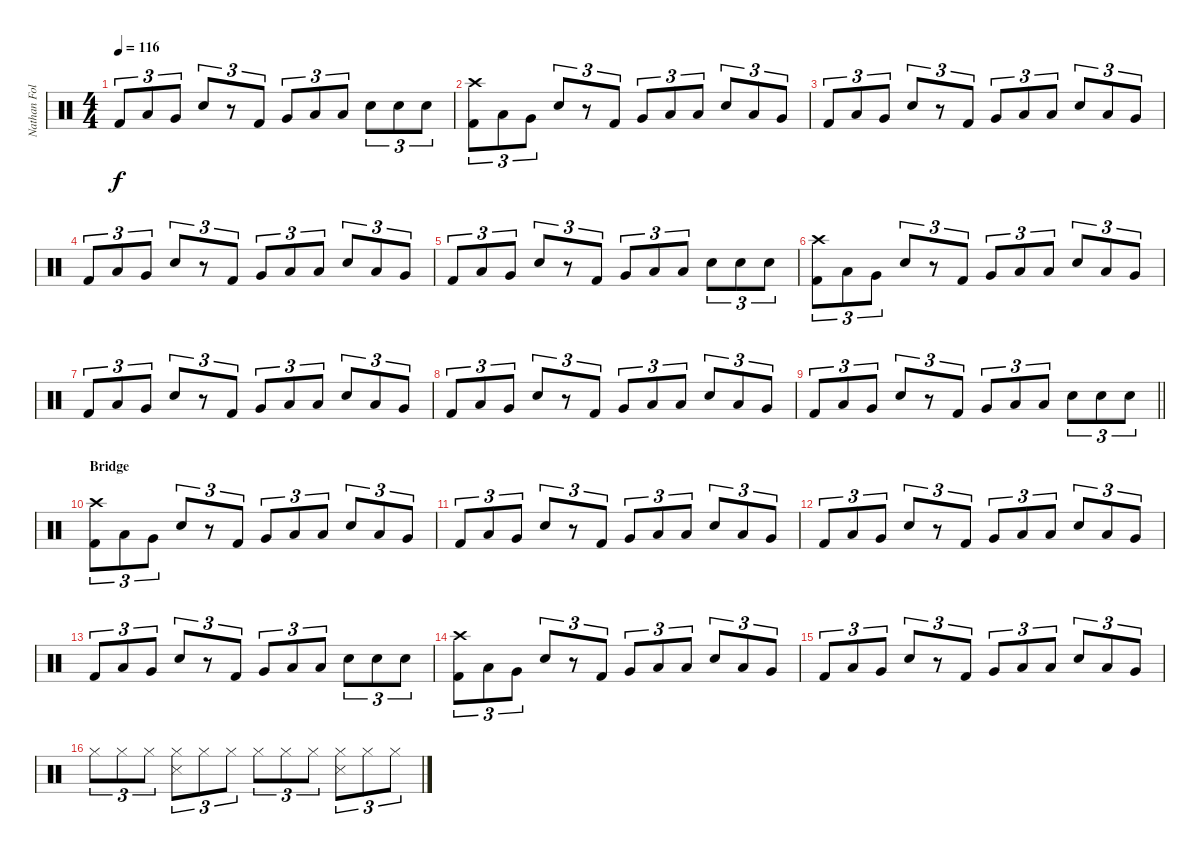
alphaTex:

\track ("Nathan Followill" "Nathan Fol") {instrument percussion}
\staff {score}
\articulation defaults
\ts (4 4)
\tempo 116
\clef neutral
\ks c "Kick (hit) 2".8{tu (3 2) dy f} "Low Tom (hit)".8{tu (3 2)} "Very Low Tom (hit)".8{tu (3 2)} "Electric Snare (hit)".8{tu (3 2)}
r.8{tu (3 2)} "Kick (hit) 2".8{tu (3 2)} "Very Low Tom (hit)".8{tu (3 2)} "Low Tom (hit)".8{tu (3 2)} "Low Floor Tom (hit)".8{tu (3 2)} "Electric Snare (hit)".8{tu (3 2)} "Electric Snare (hit)".8{tu (3 2)} "Electric Snare (hit)".8{tu (3 2)} |
("Crash high (hit)" "Kick (hit) 2").8{tu (3 2)} "Low Tom (hit)".8{tu (3 2)} "Very Low Tom (hit)".8{tu (3 2)} "Electric Snare (hit)".8{tu (3 2)} r.8{tu (3 2)} "Kick (hit) 2".8{tu (3 2)} "Very Low Tom (hit)".8{tu (3 2)} "Low Tom (hit)".8{tu (3 2)} "Low Floor Tom (hit)".8{tu (3 2)} "Electric Snare (hit)".8{tu (3 2)} "Low Tom (hit)".8{tu (3 2)} "Very Low Tom (hit)".8{tu (3 2)} |
"Kick (hit) 2".8{tu (3 2)} "Low Tom (hit)".8{tu (3 2)} "Very Low Tom (hit)".8{tu (3 2)} "Electric Snare (hit)".8{tu (3 2)} r.8{tu (3 2)} "Kick (hit) 2".8{tu (3 2)} "Very Low Tom (hit)".8{tu (3 2)} "Low Tom (hit)".8{tu (3 2)} "Low Floor Tom (hit)".8{tu (3 2)} "Electric Snare (hit)".8{tu (3 2)} "Low Tom (hit)".8{tu (3 2)} "Very Low Tom (hit)".8{tu (3 2)} |
"Kick (hit) 2".8{tu (3 2)} "Low Tom (hit)".8{tu (3 2)} "Very Low Tom (hit)".8{tu (3 2)} "Electric Snare (hit)".8{tu (3 2)} r.8{tu (3 2)} "Kick (hit) 2".8{tu (3 2)} "Very Low Tom (hit)".8{tu (3 2)} "Low Tom (hit)".8{tu (3 2)} "Low Floor Tom (hit)".8{tu (3 2)} "Electric Snare (hit)".8{tu (3 2)} "Low Tom (hit)".8{tu (3 2)} "Very Low Tom (hit)".8{tu (3 2)} |
"Kick (hit) 2".8{tu (3 2)} "Low Tom (hit)".8{tu (3 2)} "Very Low Tom (hit)".8{tu (3 2)} "Electric Snare (hit)".8{tu (3 2)} r.8{tu (3 2)} "Kick (hit) 2".8{tu (3 2)} "Very Low Tom (hit)".8{tu (3 2)} "Low Tom (hit)".8{tu (3 2)} "Low Floor Tom (hit)".8{tu (3 2)} "Electric Snare (hit)".8{tu (3 2)} "Electric Snare (hit)".8{tu (3 2)} "Electric Snare (hit)".8{tu (3 2)} |
("Crash high (hit)" "Kick (hit) 2").8{tu (3 2)} "Low Tom (hit)".8{tu (3 2)} "Very Low Tom (hit)".8{tu (3 2)} "Electric Snare (hit)".8{tu (3 2)} r.8{tu (3 2)} "Kick (hit) 2".8{tu (3 2)} "Very Low Tom (hit)".8{tu (3 2)} "Low Tom (hit)".8{tu (3 2)} "Low Floor Tom (hit)".8{tu (3 2)} "Electric Snare (hit)".8{tu (3 2)} "Low Tom (hit)".8{tu (3 2)} "Very Low Tom (hit)".8{tu (3 2)} |
"Kick (hit) 2".8{tu (3 2)} "Low Tom (hit)".8{tu (3 2)} "Very Low Tom (hit)".8{tu (3 2)} "Electric Snare (hit)".8{tu (3 2)} r.8{tu (3 2)} "Kick (hit) 2".8{tu (3 2)} "Very Low Tom (hit)".8{tu (3 2)} "Low Tom (hit)".8{tu (3 2)} "Low Floor Tom (hit)".8{tu (3 2)} "Electric Snare (hit)".8{tu (3 2)} "Low Tom (hit)".8{tu (3 2)} "Very Low Tom (hit)".8{tu (3 2)} |
"Kick (hit) 2".8{tu (3 2)} "Low Tom (hit)".8{tu (3 2)} "Very Low Tom (hit)".8{tu (3 2)} "Electric Snare (hit)".8{tu (3 2)} r.8{tu (3 2)} "Kick (hit) 2".8{tu (3 2)} "Very Low Tom (hit)".8{tu (3 2)} "Low Tom (hit)".8{tu (3 2)} "Low Floor Tom (hit)".8{tu (3 2)} "Electric Snare (hit)".8{tu (3 2)} "Low Tom (hit)".8{tu (3 2)} "Very Low Tom (hit)".8{tu (3 2)} |
\barLineRight lightlight "Kick (hit) 2".8{tu (3 2)} "Low Tom (hit)".8{tu (3 2)} "Very Low Tom (hit)".8{tu (3 2)} "Electric Snare (hit)".8{tu (3 2)}
r.8{tu (3 2)} "Kick (hit) 2".8{tu (3 2)} "Very Low Tom (hit)".8{tu (3 2)} "Low Tom (hit)".8{tu (3 2)} "Low Floor Tom (hit)".8{tu (3 2)} "Electric Snare (hit)".8{tu (3 2)} "Electric Snare (hit)".8{tu (3 2)} "Electric Snare (hit)".8{tu (3 2)} |
\section ("" "Bridge")
("Crash high (hit)" "Kick (hit) 2").8{tu (3 2)} "Low Tom (hit)".8{tu (3 2)} "Very Low Tom (hit)".8{tu (3 2)} "Electric Snare (hit)".8{tu (3 2)} r.8{tu (3 2)} "Kick (hit) 2".8{tu (3 2)} "Very Low Tom (hit)".8{tu (3 2)} "Low Tom (hit)".8{tu (3 2)} "Low Floor Tom (hit)".8{tu (3 2)} "Electric Snare (hit)".8{tu (3 2)} "Low Tom (hit)".8{tu (3 2)} "Very Low Tom (hit)".8{tu (3 2)} |
"Kick (hit) 2".8{tu (3 2)} "Low Tom (hit)".8{tu (3 2)} "Very Low Tom (hit)".8{tu (3 2)} "Electric Snare (hit)".8{tu (3 2)} r.8{tu (3 2)} "Kick (hit) 2".8{tu (3 2)} "Very Low Tom (hit)".8{tu (3 2)} "Low Tom (hit)".8{tu (3 2)} "Low Floor Tom (hit)".8{tu (3 2)} "Electric Snare (hit)".8{tu (3 2)} "Low Tom (hit)".8{tu (3 2)} "Very Low Tom (hit)".8{tu (3 2)} |
"Kick (hit) 2".8{tu (3 2)} "Low Tom (hit)".8{tu (3 2)} "Very Low Tom (hit)".8{tu (3 2)} "Electric Snare (hit)".8{tu (3 2)} r.8{tu (3 2)} "Kick (hit) 2".8{tu (3 2)} "Very Low Tom (hit)".8{tu (3 2)} "Low Tom (hit)".8{tu (3 2)} "Low Floor Tom (hit)".8{tu (3 2)} "Electric Snare (hit)".8{tu (3 2)} "Low Tom (hit)".8{tu (3 2)} "Very Low Tom (hit)".8{tu (3 2)} |
"Kick (hit) 2".8{tu (3 2)} "Low Tom (hit)".8{tu (3 2)} "Very Low Tom (hit)".8{tu (3 2)} "Electric Snare (hit)".8{tu (3 2)} r.8{tu (3 2)} "Kick (hit) 2".8{tu (3 2)} "Very Low Tom (hit)".8{tu (3 2)} "Low Tom (hit)".8{tu (3 2)} "Low Floor Tom (hit)".8{tu (3 2)} "Electric Snare (hit)".8{tu (3 2)} "Electric Snare (hit)".8{tu (3 2)} "Electric Snare (hit)".8{tu (3 2)} |
("Crash high (hit)" "Kick (hit) 2").8{tu (3 2)} "Low Tom (hit)".8{tu (3 2)} "Very Low Tom (hit)".8{tu (3 2)} "Electric Snare (hit)".8{tu (3 2)} r.8{tu (3 2)} "Kick (hit) 2".8{tu (3 2)} "Very Low Tom (hit)".8{tu (3 2)} "Low Tom (hit)".8{tu (3 2)} "Low Floor Tom (hit)".8{tu (3 2)} "Electric Snare (hit)".8{tu (3 2)} "Low Tom (hit)".8{tu (3 2)} "Very Low Tom (hit)".8{tu (3 2)} |
"Kick (hit) 2".8{tu (3 2)} "Low Tom (hit)".8{tu (3 2)} "Very Low Tom (hit)".8{tu (3 2)} "Electric Snare (hit)".8{tu (3 2)} r.8{tu (3 2)} "Kick (hit) 2".8{tu (3 2)} "Very Low Tom (hit)".8{tu (3 2)} "Low Tom (hit)".8{tu (3 2)} "Low Floor Tom (hit)".8{tu (3 2)} "Electric Snare (hit)".8{tu (3 2)} "Low Tom (hit)".8{tu (3 2)} "Very Low Tom (hit)".8{tu (3 2)} |
"Hi-Hat (closed)".8{tu (3 2)} "Hi-Hat (closed)".8{tu (3 2)} "Hi-Hat (closed)".8{tu (3 2)} ("Hi-Hat (closed)" "Snare (side stick) 3").8{tu (3 2)} "Hi-Hat (closed)".8{tu (3 2)} "Hi-Hat (closed)".8{tu (3 2)} "Hi-Hat (closed)".8{tu (3 2)} "Hi-Hat (closed)".8{tu (3 2)} "Hi-Hat (closed)".8{tu (3 2)} ("Hi-Hat (closed)" "Snare (side stick) 3").8{tu (3 2)} "Hi-Hat (closed)".8{tu (3 2)} "Hi-Hat (closed)".8{tu (3 2)}
